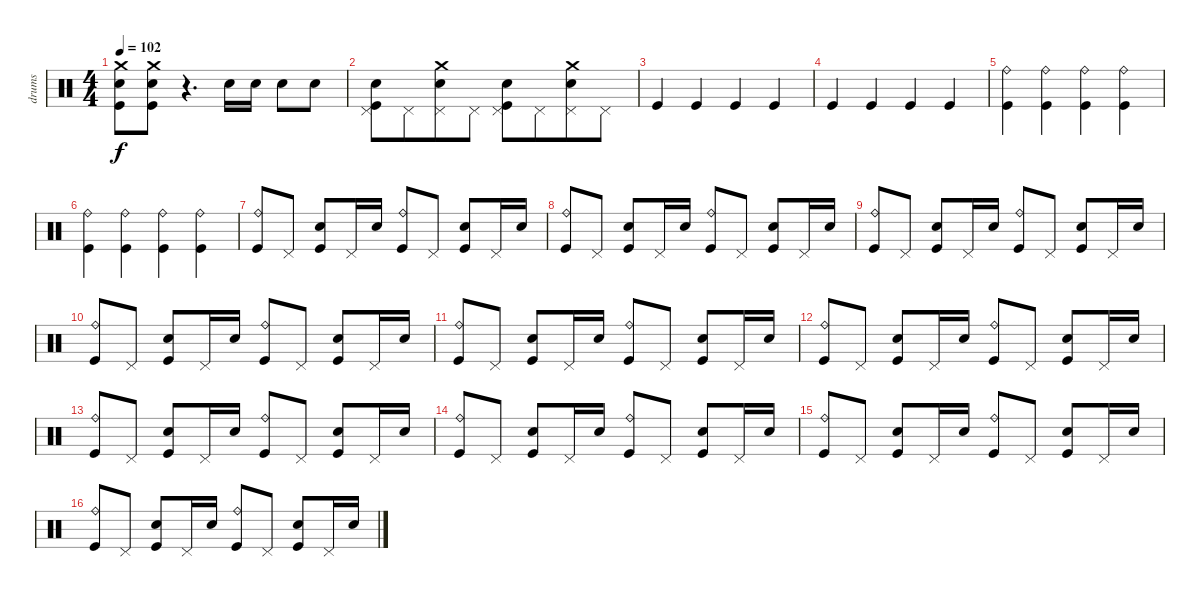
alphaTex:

\track ("drums" "drums") {instrument percussion}
\staff {score}
\articulation defaults
\ts (4 4)
\tempo 102
\clef neutral
\ks c
("Crash medium (hit)" "Snare (hit) 2" "Kick (hit)").8{dy f} ("Crash medium (hit)" "Snare (hit) 2" "Kick (hit)").8 r.4{d} "Snare (hit) 2".16 "Snare (hit) 2".16 "Snare (hit) 2".8 "Snare (hit) 2".8 |
("Snare (hit) 2" "Pedal Hi-Hat (hit)" "Kick (hit)").8 "Pedal Hi-Hat (hit)".8{beam merge} ("Snare (hit) 2" "Pedal Hi-Hat (hit)" "Crash medium (hit)").8{beam merge} "Pedal Hi-Hat (hit)".8{beam split} ("Snare (hit) 2" "Pedal Hi-Hat (hit)" "Kick (hit)").8{beam merge} "Pedal Hi-Hat (hit)".8{beam merge} ("Snare (hit) 2" "Pedal Hi-Hat (hit)" "Crash medium (hit)").8 "Pedal Hi-Hat (hit)".8 |
"Kick (hit)".4 "Kick (hit)".4 "Kick (hit)".4 "Kick (hit)".4 |
"Kick (hit)".4 "Kick (hit)".4 "Kick (hit)".4 "Kick (hit)".4 |
("Ride (bell)" "Kick (hit)").4 ("Ride (bell)" "Kick (hit)").4 ("Ride (bell)" "Kick (hit)").4 ("Ride (bell)" "Kick (hit)").4 |
("Ride (bell)" "Kick (hit)").4 ("Ride (bell)" "Kick (hit)").4 ("Ride (bell)" "Kick (hit)").4 ("Ride (bell)" "Kick (hit)").4 |
("Ride (bell)" "Kick (hit)").8 "Pedal Hi-Hat (hit)".8 ("Kick (hit)" "Snare (hit) 2").8 "Pedal Hi-Hat (hit)".16 "Snare (hit) 2".16 ("Ride (bell)" "Kick (hit)").8 "Pedal Hi-Hat (hit)".8 ("Kick (hit)" "Snare (hit) 2").8 "Pedal Hi-Hat (hit)".16 "Snare (hit) 2".16 |
("Ride (bell)" "Kick (hit)").8 "Pedal Hi-Hat (hit)".8 ("Kick (hit)" "Snare (hit) 2").8 "Pedal Hi-Hat (hit)".16 "Snare (hit) 2".16 ("Ride (bell)" "Kick (hit)").8 "Pedal Hi-Hat (hit)".8 ("Kick (hit)" "Snare (hit) 2").8 "Pedal Hi-Hat (hit)".16 "Snare (hit) 2".16 |
("Ride (bell)" "Kick (hit)").8 "Pedal Hi-Hat (hit)".8 ("Kick (hit)" "Snare (hit) 2").8 "Pedal Hi-Hat (hit)".16 "Snare (hit) 2".16 ("Ride (bell)" "Kick (hit)").8 "Pedal Hi-Hat (hit)".8 ("Kick (hit)" "Snare (hit) 2").8 "Pedal Hi-Hat (hit)".16 "Snare (hit) 2".16 |
("Ride (bell)" "Kick (hit)").8 "Pedal Hi-Hat (hit)".8 ("Kick (hit)" "Snare (hit) 2").8 "Pedal Hi-Hat (hit)".16 "Snare (hit) 2".16 ("Ride (bell)" "Kick (hit)").8 "Pedal Hi-Hat (hit)".8 ("Kick (hit)" "Snare (hit) 2").8 "Pedal Hi-Hat (hit)".16 "Snare (hit) 2".16 |
("Ride (bell)" "Kick (hit)").8 "Pedal Hi-Hat (hit)".8 ("Kick (hit)" "Snare (hit) 2").8 "Pedal Hi-Hat (hit)".16 "Snare (hit) 2".16 ("Ride (bell)" "Kick (hit)").8 "Pedal Hi-Hat (hit)".8 ("Kick (hit)" "Snare (hit) 2").8 "Pedal Hi-Hat (hit)".16 "Snare (hit) 2".16 |
("Ride (bell)" "Kick (hit)").8 "Pedal Hi-Hat (hit)".8 ("Kick (hit)" "Snare (hit) 2").8 "Pedal Hi-Hat (hit)".16 "Snare (hit) 2".16 ("Ride (bell)" "Kick (hit)").8 "Pedal Hi-Hat (hit)".8 ("Kick (hit)" "Snare (hit) 2").8 "Pedal Hi-Hat (hit)".16 "Snare (hit) 2".16 |
("Ride (bell)" "Kick (hit)").8 "Pedal Hi-Hat (hit)".8 ("Kick (hit)" "Snare (hit) 2").8 "Pedal Hi-Hat (hit)".16 "Snare (hit) 2".16 ("Ride (bell)" "Kick (hit)").8 "Pedal Hi-Hat (hit)".8 ("Kick (hit)" "Snare (hit) 2").8 "Pedal Hi-Hat (hit)".16 "Snare (hit) 2".16 |
("Ride (bell)" "Kick (hit)").8 "Pedal Hi-Hat (hit)".8 ("Kick (hit)" "Snare (hit) 2").8 "Pedal Hi-Hat (hit)".16 "Snare (hit) 2".16 ("Ride (bell)" "Kick (hit)").8 "Pedal Hi-Hat (hit)".8 ("Kick (hit)" "Snare (hit) 2").8 "Pedal Hi-Hat (hit)".16 "Snare (hit) 2".16 |
("Ride (bell)" "Kick (hit)").8 "Pedal Hi-Hat (hit)".8 ("Kick (hit)" "Snare (hit) 2").8 "Pedal Hi-Hat (hit)".16 "Snare (hit) 2".16 ("Ride (bell)" "Kick (hit)").8 "Pedal Hi-Hat (hit)".8 ("Kick (hit)" "Snare (hit) 2").8 "Pedal Hi-Hat (hit)".16 "Snare (hit) 2".16 |
("Ride (bell)" "Kick (hit)").8 "Pedal Hi-Hat (hit)".8 ("Kick (hit)" "Snare (hit) 2").8 "Pedal Hi-Hat (hit)".16 "Snare (hit) 2".16 ("Ride (bell)" "Kick (hit)").8 "Pedal Hi-Hat (hit)".8 ("Kick (hit)" "Snare (hit) 2").8 "Pedal Hi-Hat (hit)".16 "Snare (hit) 2".16
